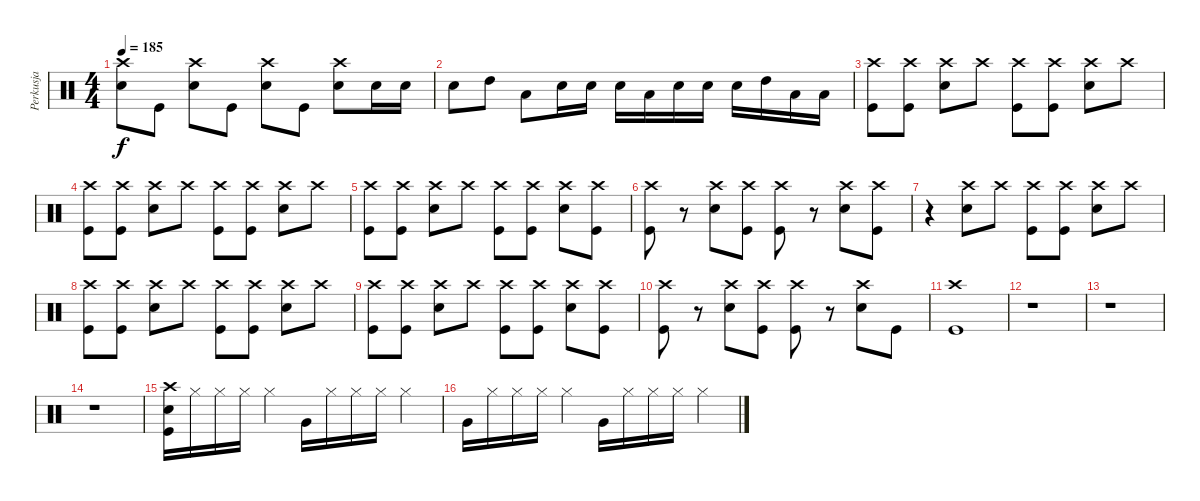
\track ("Perkusja" "Perkusja") {instrument percussion}
\staff {score}
\articulation defaults
\ts (4 4)
\tempo 185
\clef neutral
\ks c
("Crash high (hit)" "Snare (hit) 2").8{dy f} "Kick (hit)".8 ("Crash high (hit)" "Snare (hit) 2").8 "Kick (hit)".8 ("Crash high (hit)" "Snare (hit) 2").8 "Kick (hit)".8 ("Crash high (hit)" "Snare (hit) 2").8 "Snare (hit) 2".16 "Snare (hit) 2".16 |
"Snare (hit) 2".8 "High Tom (hit)".8 "Low Floor Tom (hit)".8 "Snare (hit) 2".16 "Snare (hit) 2".16 "Snare (hit) 2".16 "Low Floor Tom (hit)".16 "Snare (hit) 2".16 "Snare (hit) 2".16 "Snare (hit) 2".16 "High Tom (hit)".16 "Low Floor Tom (hit)".16 "Low Floor Tom (hit)".16 |
("Crash high (hit)" "Kick (hit)").8 ("Crash high (hit)" "Kick (hit)").8 ("Crash high (hit)" "Snare (hit) 2").8 "Crash high (hit)".8 ("Crash high (hit)" "Kick (hit)").8 ("Crash high (hit)" "Kick (hit)").8 ("Crash high (hit)" "Snare (hit) 2").8 "Crash high (hit)".8 |
("Crash high (hit)" "Kick (hit)").8 ("Crash high (hit)" "Kick (hit)").8 ("Crash high (hit)" "Snare (hit) 2").8 "Crash high (hit)".8 ("Crash high (hit)" "Kick (hit)").8 ("Crash high (hit)" "Kick (hit)").8 ("Crash high (hit)" "Snare (hit) 2").8 "Crash high (hit)".8 |
("Crash high (hit)" "Kick (hit)").8 ("Crash high (hit)" "Kick (hit)").8 ("Crash high (hit)" "Snare (hit) 2").8 "Crash high (hit)".8 ("Crash high (hit)" "Kick (hit)").8 ("Crash high (hit)" "Kick (hit)").8 ("Crash high (hit)" "Snare (hit) 2").8 ("Crash high (hit)" "Kick (hit)").8 |
("Crash high (hit)" "Kick (hit)").8 r.8 ("Crash high (hit)" "Snare (hit) 2").8 ("Crash high (hit)" "Kick (hit)").8 ("Crash high (hit)" "Kick (hit)").8 r.8 ("Crash high (hit)" "Snare (hit) 2").8 ("Crash high (hit)" "Kick (hit)").8 |
r.4 ("Crash high (hit)" "Snare (hit) 2").8 "Crash high (hit)".8 ("Crash high (hit)" "Kick (hit)").8 ("Crash high (hit)" "Kick (hit)").8 ("Crash high (hit)" "Snare (hit) 2").8 "Crash high (hit)".8 |
("Crash high (hit)" "Kick (hit)").8 ("Crash high (hit)" "Kick (hit)").8 ("Crash high (hit)" "Snare (hit) 2").8 "Crash high (hit)".8 ("Crash high (hit)" "Kick (hit)").8 ("Crash high (hit)" "Kick (hit)").8 ("Crash high (hit)" "Snare (hit) 2").8 "Crash high (hit)".8 |
("Crash high (hit)" "Kick (hit)").8 ("Crash high (hit)" "Kick (hit)").8 ("Crash high (hit)" "Snare (hit) 2").8 "Crash high (hit)".8 ("Crash high (hit)" "Kick (hit)").8 ("Crash high (hit)" "Kick (hit)").8 ("Crash high (hit)" "Snare (hit) 2").8 ("Crash high (hit)" "Kick (hit)").8 |
("Crash high (hit)" "Kick (hit)").8 r.8 ("Crash high (hit)" "Snare (hit) 2").8 ("Crash high (hit)" "Kick (hit)").8 ("Crash high (hit)" "Kick (hit)").8 r.8 ("Crash high (hit)" "Snare (hit) 2").8 "Kick (hit)".8 |
("Crash high (hit)" "Kick (hit)").1 |
r.1 |
r.1 |
r.1 |
("Crash high (hit)" "Snare (hit) 2" "Kick (hit)").16 "Hi-Hat (closed)".16 "Hi-Hat (closed)".16 "Hi-Hat (closed)".16 "Hi-Hat (closed)".4 "Very Low Tom (hit)".16 "Hi-Hat (closed)".16 "Hi-Hat (closed)".16 "Hi-Hat (closed)".16 "Hi-Hat (closed)".4 |
"Very Low Tom (hit)".16 "Hi-Hat (closed)".16 "Hi-Hat (closed)".16 "Hi-Hat (closed)".16 "Hi-Hat (closed)".4 "Very Low Tom (hit)".16 "Hi-Hat (closed)".16 "Hi-Hat (closed)".16 "Hi-Hat (closed)".16 "Hi-Hat (closed)".4
